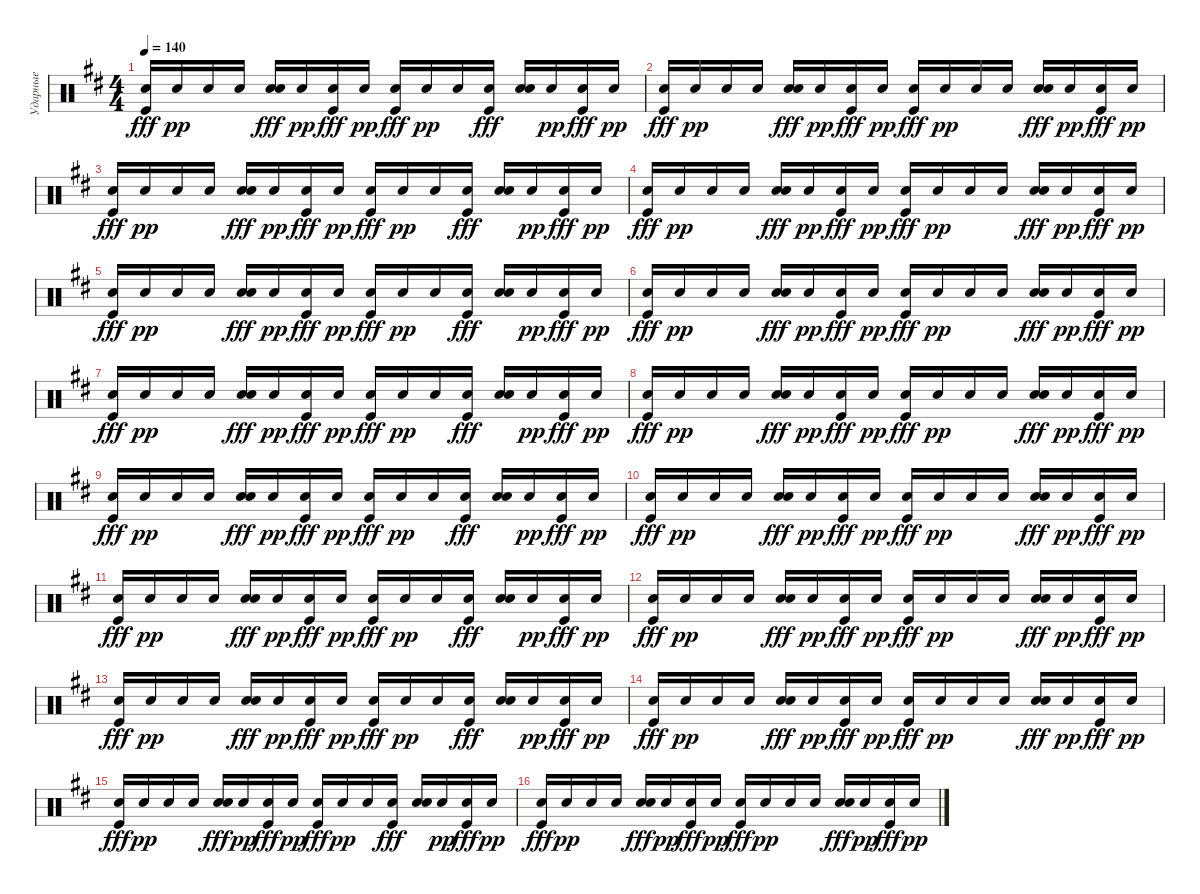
\track ("Ударные" "Ударные") {instrument percussion}
\staff {score}
\articulation defaults
\ts (4 4)
\tempo 140
\clef neutral
\ks d
("Electric Snare (hit)" "Kick (hit)").16{dy fff} "Electric Snare (hit)".16{dy pp} "Electric Snare (hit)".16 "Electric Snare (hit)".16 ("Electric Snare (hit)" "Electric Snare (hit)").16{dy fff} "Electric Snare (hit)".16{dy pp} ("Electric Snare (hit)" "Kick (hit)").16{dy fff} "Electric Snare (hit)".16{dy pp} ("Electric Snare (hit)" "Kick (hit)").16{dy fff} "Electric Snare (hit)".16{dy pp} "Electric Snare (hit)".16 ("Electric Snare (hit)" "Kick (hit)").16{dy fff} ("Electric Snare (hit)" "Electric Snare (hit)").16 "Electric Snare (hit)".16{dy pp} ("Electric Snare (hit)" "Kick (hit)").16{dy fff} "Electric Snare (hit)".16{dy pp} |
("Electric Snare (hit)" "Kick (hit)").16{dy fff} "Electric Snare (hit)".16{dy pp} "Electric Snare (hit)".16 "Electric Snare (hit)".16 ("Electric Snare (hit)" "Electric Snare (hit)").16{dy fff} "Electric Snare (hit)".16{dy pp} ("Electric Snare (hit)" "Kick (hit)").16{dy fff} "Electric Snare (hit)".16{dy pp} ("Electric Snare (hit)" "Kick (hit)").16{dy fff} "Electric Snare (hit)".16{dy pp} "Electric Snare (hit)".16 "Electric Snare (hit)".16 ("Electric Snare (hit)" "Electric Snare (hit)").16{dy fff} "Electric Snare (hit)".16{dy pp} ("Electric Snare (hit)" "Kick (hit)").16{dy fff} "Electric Snare (hit)".16{dy pp} |
("Electric Snare (hit)" "Kick (hit)").16{dy fff} "Electric Snare (hit)".16{dy pp} "Electric Snare (hit)".16 "Electric Snare (hit)".16 ("Electric Snare (hit)" "Electric Snare (hit)").16{dy fff} "Electric Snare (hit)".16{dy pp} ("Electric Snare (hit)" "Kick (hit)").16{dy fff} "Electric Snare (hit)".16{dy pp} ("Electric Snare (hit)" "Kick (hit)").16{dy fff} "Electric Snare (hit)".16{dy pp} "Electric Snare (hit)".16 ("Electric Snare (hit)" "Kick (hit)").16{dy fff} ("Electric Snare (hit)" "Electric Snare (hit)").16 "Electric Snare (hit)".16{dy pp} ("Electric Snare (hit)" "Kick (hit)").16{dy fff} "Electric Snare (hit)".16{dy pp} |
("Electric Snare (hit)" "Kick (hit)").16{dy fff} "Electric Snare (hit)".16{dy pp} "Electric Snare (hit)".16 "Electric Snare (hit)".16 ("Electric Snare (hit)" "Electric Snare (hit)").16{dy fff} "Electric Snare (hit)".16{dy pp} ("Electric Snare (hit)" "Kick (hit)").16{dy fff} "Electric Snare (hit)".16{dy pp} ("Electric Snare (hit)" "Kick (hit)").16{dy fff} "Electric Snare (hit)".16{dy pp} "Electric Snare (hit)".16 "Electric Snare (hit)".16 ("Electric Snare (hit)" "Electric Snare (hit)").16{dy fff} "Electric Snare (hit)".16{dy pp} ("Electric Snare (hit)" "Kick (hit)").16{dy fff} "Electric Snare (hit)".16{dy pp} |
("Electric Snare (hit)" "Kick (hit)").16{dy fff} "Electric Snare (hit)".16{dy pp} "Electric Snare (hit)".16 "Electric Snare (hit)".16 ("Electric Snare (hit)" "Electric Snare (hit)").16{dy fff} "Electric Snare (hit)".16{dy pp} ("Electric Snare (hit)" "Kick (hit)").16{dy fff} "Electric Snare (hit)".16{dy pp} ("Electric Snare (hit)" "Kick (hit)").16{dy fff} "Electric Snare (hit)".16{dy pp} "Electric Snare (hit)".16 ("Electric Snare (hit)" "Kick (hit)").16{dy fff} ("Electric Snare (hit)" "Electric Snare (hit)").16 "Electric Snare (hit)".16{dy pp} ("Electric Snare (hit)" "Kick (hit)").16{dy fff} "Electric Snare (hit)".16{dy pp} |
("Electric Snare (hit)" "Kick (hit)").16{dy fff} "Electric Snare (hit)".16{dy pp} "Electric Snare (hit)".16 "Electric Snare (hit)".16 ("Electric Snare (hit)" "Electric Snare (hit)").16{dy fff} "Electric Snare (hit)".16{dy pp} ("Electric Snare (hit)" "Kick (hit)").16{dy fff} "Electric Snare (hit)".16{dy pp} ("Electric Snare (hit)" "Kick (hit)").16{dy fff} "Electric Snare (hit)".16{dy pp} "Electric Snare (hit)".16 "Electric Snare (hit)".16 ("Electric Snare (hit)" "Electric Snare (hit)").16{dy fff} "Electric Snare (hit)".16{dy pp} ("Electric Snare (hit)" "Kick (hit)").16{dy fff} "Electric Snare (hit)".16{dy pp} |
("Electric Snare (hit)" "Kick (hit)").16{dy fff} "Electric Snare (hit)".16{dy pp} "Electric Snare (hit)".16 "Electric Snare (hit)".16 ("Electric Snare (hit)" "Electric Snare (hit)").16{dy fff} "Electric Snare (hit)".16{dy pp} ("Electric Snare (hit)" "Kick (hit)").16{dy fff} "Electric Snare (hit)".16{dy pp} ("Electric Snare (hit)" "Kick (hit)").16{dy fff} "Electric Snare (hit)".16{dy pp} "Electric Snare (hit)".16 ("Electric Snare (hit)" "Kick (hit)").16{dy fff} ("Electric Snare (hit)" "Electric Snare (hit)").16 "Electric Snare (hit)".16{dy pp} ("Electric Snare (hit)" "Kick (hit)").16{dy fff} "Electric Snare (hit)".16{dy pp} |
("Electric Snare (hit)" "Kick (hit)").16{dy fff} "Electric Snare (hit)".16{dy pp} "Electric Snare (hit)".16 "Electric Snare (hit)".16 ("Electric Snare (hit)" "Electric Snare (hit)").16{dy fff} "Electric Snare (hit)".16{dy pp} ("Electric Snare (hit)" "Kick (hit)").16{dy fff} "Electric Snare (hit)".16{dy pp} ("Electric Snare (hit)" "Kick (hit)").16{dy fff} "Electric Snare (hit)".16{dy pp} "Electric Snare (hit)".16 "Electric Snare (hit)".16 ("Electric Snare (hit)" "Electric Snare (hit)").16{dy fff} "Electric Snare (hit)".16{dy pp} ("Electric Snare (hit)" "Kick (hit)").16{dy fff} "Electric Snare (hit)".16{dy pp} |
("Electric Snare (hit)" "Kick (hit)").16{dy fff} "Electric Snare (hit)".16{dy pp} "Electric Snare (hit)".16 "Electric Snare (hit)".16 ("Electric Snare (hit)" "Electric Snare (hit)").16{dy fff} "Electric Snare (hit)".16{dy pp} ("Electric Snare (hit)" "Kick (hit)").16{dy fff} "Electric Snare (hit)".16{dy pp} ("Electric Snare (hit)" "Kick (hit)").16{dy fff} "Electric Snare (hit)".16{dy pp} "Electric Snare (hit)".16 ("Electric Snare (hit)" "Kick (hit)").16{dy fff} ("Electric Snare (hit)" "Electric Snare (hit)").16 "Electric Snare (hit)".16{dy pp} ("Electric Snare (hit)" "Kick (hit)").16{dy fff} "Electric Snare (hit)".16{dy pp} |
("Electric Snare (hit)" "Kick (hit)").16{dy fff} "Electric Snare (hit)".16{dy pp} "Electric Snare (hit)".16 "Electric Snare (hit)".16 ("Electric Snare (hit)" "Electric Snare (hit)").16{dy fff} "Electric Snare (hit)".16{dy pp} ("Electric Snare (hit)" "Kick (hit)").16{dy fff} "Electric Snare (hit)".16{dy pp} ("Electric Snare (hit)" "Kick (hit)").16{dy fff} "Electric Snare (hit)".16{dy pp} "Electric Snare (hit)".16 "Electric Snare (hit)".16 ("Electric Snare (hit)" "Electric Snare (hit)").16{dy fff} "Electric Snare (hit)".16{dy pp} ("Electric Snare (hit)" "Kick (hit)").16{dy fff} "Electric Snare (hit)".16{dy pp} |
("Electric Snare (hit)" "Kick (hit)").16{dy fff} "Electric Snare (hit)".16{dy pp} "Electric Snare (hit)".16 "Electric Snare (hit)".16 ("Electric Snare (hit)" "Electric Snare (hit)").16{dy fff} "Electric Snare (hit)".16{dy pp} ("Electric Snare (hit)" "Kick (hit)").16{dy fff} "Electric Snare (hit)".16{dy pp} ("Electric Snare (hit)" "Kick (hit)").16{dy fff} "Electric Snare (hit)".16{dy pp} "Electric Snare (hit)".16 ("Electric Snare (hit)" "Kick (hit)").16{dy fff} ("Electric Snare (hit)" "Electric Snare (hit)").16 "Electric Snare (hit)".16{dy pp} ("Electric Snare (hit)" "Kick (hit)").16{dy fff} "Electric Snare (hit)".16{dy pp} |
("Electric Snare (hit)" "Kick (hit)").16{dy fff} "Electric Snare (hit)".16{dy pp} "Electric Snare (hit)".16 "Electric Snare (hit)".16 ("Electric Snare (hit)" "Electric Snare (hit)").16{dy fff} "Electric Snare (hit)".16{dy pp} ("Electric Snare (hit)" "Kick (hit)").16{dy fff} "Electric Snare (hit)".16{dy pp} ("Electric Snare (hit)" "Kick (hit)").16{dy fff} "Electric Snare (hit)".16{dy pp} "Electric Snare (hit)".16 "Electric Snare (hit)".16 ("Electric Snare (hit)" "Electric Snare (hit)").16{dy fff} "Electric Snare (hit)".16{dy pp} ("Electric Snare (hit)" "Kick (hit)").16{dy fff} "Electric Snare (hit)".16{dy pp} |
("Electric Snare (hit)" "Kick (hit)").16{dy fff} "Electric Snare (hit)".16{dy pp} "Electric Snare (hit)".16 "Electric Snare (hit)".16 ("Electric Snare (hit)" "Electric Snare (hit)").16{dy fff} "Electric Snare (hit)".16{dy pp} ("Electric Snare (hit)" "Kick (hit)").16{dy fff} "Electric Snare (hit)".16{dy pp} ("Electric Snare (hit)" "Kick (hit)").16{dy fff} "Electric Snare (hit)".16{dy pp} "Electric Snare (hit)".16 ("Electric Snare (hit)" "Kick (hit)").16{dy fff} ("Electric Snare (hit)" "Electric Snare (hit)").16 "Electric Snare (hit)".16{dy pp} ("Electric Snare (hit)" "Kick (hit)").16{dy fff} "Electric Snare (hit)".16{dy pp} |
("Electric Snare (hit)" "Kick (hit)").16{dy fff} "Electric Snare (hit)".16{dy pp} "Electric Snare (hit)".16 "Electric Snare (hit)".16 ("Electric Snare (hit)" "Electric Snare (hit)").16{dy fff} "Electric Snare (hit)".16{dy pp} ("Electric Snare (hit)" "Kick (hit)").16{dy fff} "Electric Snare (hit)".16{dy pp} ("Electric Snare (hit)" "Kick (hit)").16{dy fff} "Electric Snare (hit)".16{dy pp} "Electric Snare (hit)".16 "Electric Snare (hit)".16 ("Electric Snare (hit)" "Electric Snare (hit)").16{dy fff} "Electric Snare (hit)".16{dy pp} ("Electric Snare (hit)" "Kick (hit)").16{dy fff} "Electric Snare (hit)".16{dy pp} |
("Electric Snare (hit)" "Kick (hit)").16{dy fff} "Electric Snare (hit)".16{dy pp} "Electric Snare (hit)".16 "Electric Snare (hit)".16 ("Electric Snare (hit)" "Electric Snare (hit)").16{dy fff} "Electric Snare (hit)".16{dy pp} ("Electric Snare (hit)" "Kick (hit)").16{dy fff} "Electric Snare (hit)".16{dy pp} ("Electric Snare (hit)" "Kick (hit)").16{dy fff} "Electric Snare (hit)".16{dy pp} "Electric Snare (hit)".16 ("Electric Snare (hit)" "Kick (hit)").16{dy fff} ("Electric Snare (hit)" "Electric Snare (hit)").16 "Electric Snare (hit)".16{dy pp} ("Electric Snare (hit)" "Kick (hit)").16{dy fff} "Electric Snare (hit)".16{dy pp} |
("Electric Snare (hit)" "Kick (hit)").16{dy fff} "Electric Snare (hit)".16{dy pp} "Electric Snare (hit)".16 "Electric Snare (hit)".16 ("Electric Snare (hit)" "Electric Snare (hit)").16{dy fff} "Electric Snare (hit)".16{dy pp} ("Electric Snare (hit)" "Kick (hit)").16{dy fff} "Electric Snare (hit)".16{dy pp} ("Electric Snare (hit)" "Kick (hit)").16{dy fff} "Electric Snare (hit)".16{dy pp} "Electric Snare (hit)".16 "Electric Snare (hit)".16 ("Electric Snare (hit)" "Electric Snare (hit)").16{dy fff} "Electric Snare (hit)".16{dy pp} ("Electric Snare (hit)" "Kick (hit)").16{dy fff} "Electric Snare (hit)".16{dy pp}
